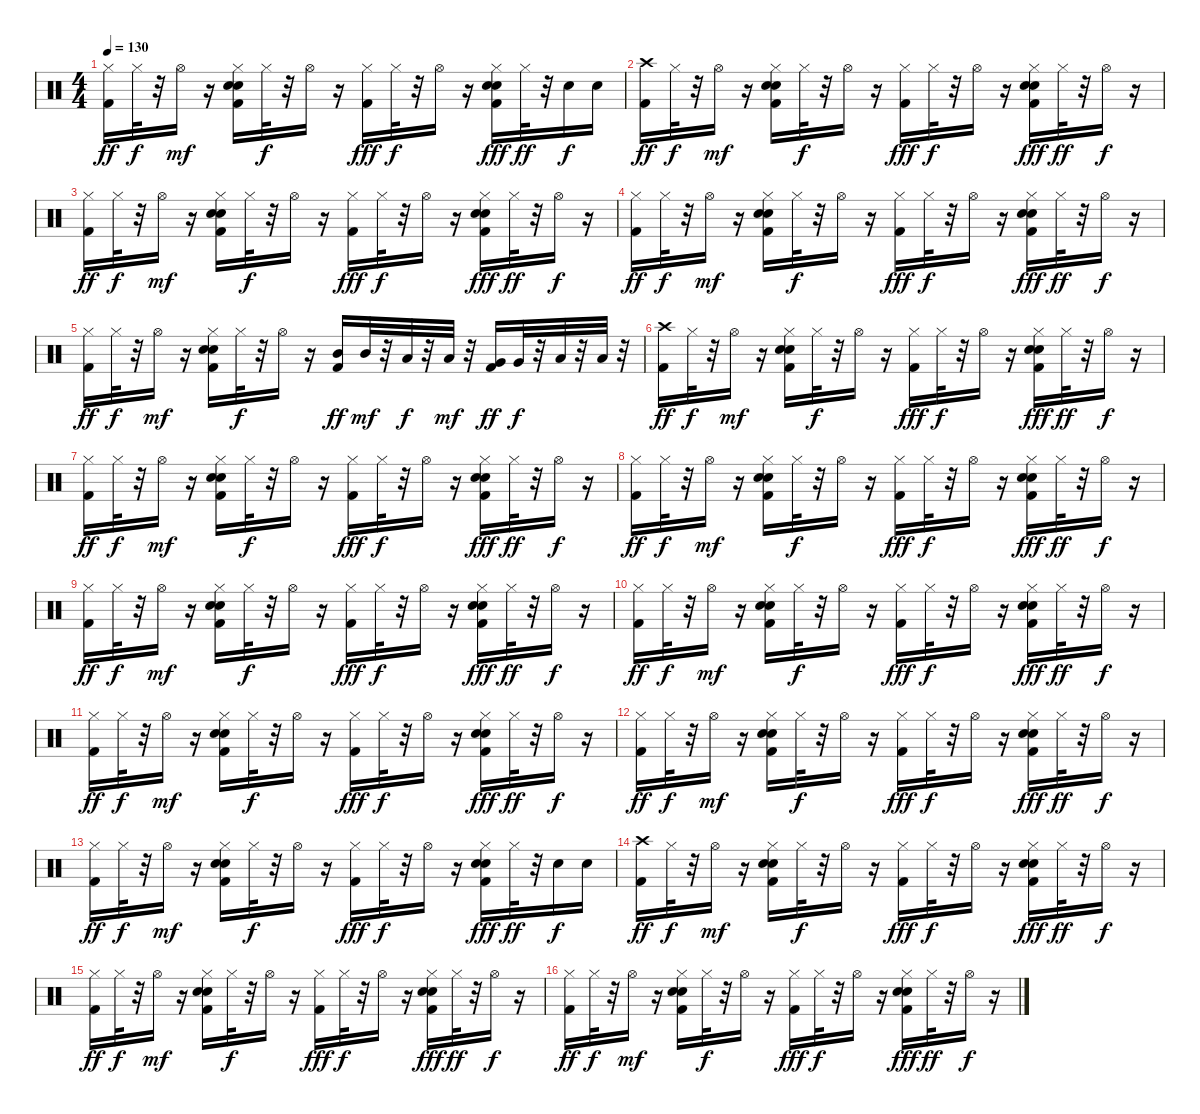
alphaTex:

\track "" {instrument percussion}
\staff {score}
\articulation defaults
\ts (4 4)
\tempo 130
\clef neutral
\ks c
("Kick (hit) 2" "Hi-Hat (closed)").16{dy ff} "Hi-Hat (closed)".32{dy f} r.32 "Hi-Hat (open)".16{dy mf} r.16 ("Kick (hit) 2" "Hand Clap (hit)" "Electric Snare (hit)" "Hi-Hat (closed)").16 "Hi-Hat (closed)".32{dy f} r.32 "Hi-Hat (open)".16 r.16 ("Kick (hit) 2" "Hi-Hat (closed)").16{dy fff} "Hi-Hat (closed)".32{dy f} r.32 "Hi-Hat (open)".16 r.16 ("Kick (hit) 2" "Hand Clap (hit)" "Electric Snare (hit)" "Hi-Hat (closed)").16{dy fff} "Hi-Hat (closed)".32{dy ff} r.32 "Electric Snare (hit)".16{dy f} "Electric Snare (hit)".16 |
("Kick (hit) 2" "Crash high (hit)").16{dy ff} "Hi-Hat (closed)".32{dy f} r.32 "Hi-Hat (open)".16{dy mf} r.16 ("Kick (hit) 2" "Hand Clap (hit)" "Electric Snare (hit)" "Hi-Hat (closed)").16 "Hi-Hat (closed)".32{dy f} r.32 "Hi-Hat (open)".16 r.16 ("Kick (hit) 2" "Hi-Hat (closed)").16{dy fff} "Hi-Hat (closed)".32{dy f} r.32 "Hi-Hat (open)".16 r.16 ("Kick (hit) 2" "Hand Clap (hit)" "Electric Snare (hit)" "Hi-Hat (closed)").16{dy fff} "Hi-Hat (closed)".32{dy ff} r.32 "Hi-Hat (open)".16{dy f} r.16 |
("Kick (hit) 2" "Hi-Hat (closed)").16{dy ff} "Hi-Hat (closed)".32{dy f} r.32 "Hi-Hat (open)".16{dy mf} r.16 ("Kick (hit) 2" "Hand Clap (hit)" "Electric Snare (hit)" "Hi-Hat (closed)").16 "Hi-Hat (closed)".32{dy f} r.32 "Hi-Hat (open)".16 r.16 ("Kick (hit) 2" "Hi-Hat (closed)").16{dy fff} "Hi-Hat (closed)".32{dy f} r.32 "Hi-Hat (open)".16 r.16 ("Kick (hit) 2" "Hand Clap (hit)" "Electric Snare (hit)" "Hi-Hat (closed)").16{dy fff} "Hi-Hat (closed)".32{dy ff} r.32 "Hi-Hat (open)".16{dy f} r.16 |
("Kick (hit) 2" "Hi-Hat (closed)").16{dy ff} "Hi-Hat (closed)".32{dy f} r.32 "Hi-Hat (open)".16{dy mf} r.16 ("Kick (hit) 2" "Hand Clap (hit)" "Electric Snare (hit)" "Hi-Hat (closed)").16 "Hi-Hat (closed)".32{dy f} r.32 "Hi-Hat (open)".16 r.16 ("Kick (hit) 2" "Hi-Hat (closed)").16{dy fff} "Hi-Hat (closed)".32{dy f} r.32 "Hi-Hat (open)".16 r.16 ("Kick (hit) 2" "Hand Clap (hit)" "Electric Snare (hit)" "Hi-Hat (closed)").16{dy fff} "Hi-Hat (closed)".32{dy ff} r.32 "Hi-Hat (open)".16{dy f} r.16 |
("Kick (hit) 2" "Hi-Hat (closed)").16{dy ff} "Hi-Hat (closed)".32{dy f} r.32 "Hi-Hat (open)".16{dy mf} r.16 ("Kick (hit) 2" "Hand Clap (hit)" "Electric Snare (hit)" "Hi-Hat (closed)").16 "Hi-Hat (closed)".32{dy f} r.32 "Hi-Hat (open)".16 r.16 ("Kick (hit) 2" "Mid Tom (hit)").16{dy ff} "Mid Tom (hit)".32{dy mf} r.32 "Low Tom (hit)".32{dy f} r.32 "Low Tom (hit)".32{dy mf} r.32 ("Kick (hit) 2" "Very Low Tom (hit)").16{dy ff} "Very Low Tom (hit)".32{dy f} r.32 "Low Floor Tom (hit)".32 r.32 "Low Floor Tom (hit)".32 r.32 |
("Kick (hit) 2" "Crash high (hit)").16{dy ff} "Hi-Hat (closed)".32{dy f} r.32 "Hi-Hat (open)".16{dy mf} r.16 ("Kick (hit) 2" "Hand Clap (hit)" "Electric Snare (hit)" "Hi-Hat (closed)").16 "Hi-Hat (closed)".32{dy f} r.32 "Hi-Hat (open)".16 r.16 ("Kick (hit) 2" "Hi-Hat (closed)").16{dy fff} "Hi-Hat (closed)".32{dy f} r.32 "Hi-Hat (open)".16 r.16 ("Kick (hit) 2" "Hand Clap (hit)" "Electric Snare (hit)" "Hi-Hat (closed)").16{dy fff} "Hi-Hat (closed)".32{dy ff} r.32 "Hi-Hat (open)".16{dy f} r.16 |
("Kick (hit) 2" "Hi-Hat (closed)").16{dy ff} "Hi-Hat (closed)".32{dy f} r.32 "Hi-Hat (open)".16{dy mf} r.16 ("Kick (hit) 2" "Hand Clap (hit)" "Electric Snare (hit)" "Hi-Hat (closed)").16 "Hi-Hat (closed)".32{dy f} r.32 "Hi-Hat (open)".16 r.16 ("Kick (hit) 2" "Hi-Hat (closed)").16{dy fff} "Hi-Hat (closed)".32{dy f} r.32 "Hi-Hat (open)".16 r.16 ("Kick (hit) 2" "Hand Clap (hit)" "Electric Snare (hit)" "Hi-Hat (closed)").16{dy fff} "Hi-Hat (closed)".32{dy ff} r.32 "Hi-Hat (open)".16{dy f} r.16 |
("Kick (hit) 2" "Hi-Hat (closed)").16{dy ff} "Hi-Hat (closed)".32{dy f} r.32 "Hi-Hat (open)".16{dy mf} r.16 ("Kick (hit) 2" "Hand Clap (hit)" "Electric Snare (hit)" "Hi-Hat (closed)").16 "Hi-Hat (closed)".32{dy f} r.32 "Hi-Hat (open)".16 r.16 ("Kick (hit) 2" "Hi-Hat (closed)").16{dy fff} "Hi-Hat (closed)".32{dy f} r.32 "Hi-Hat (open)".16 r.16 ("Kick (hit) 2" "Hand Clap (hit)" "Electric Snare (hit)" "Hi-Hat (closed)").16{dy fff} "Hi-Hat (closed)".32{dy ff} r.32 "Hi-Hat (open)".16{dy f} r.16 |
("Kick (hit) 2" "Hi-Hat (closed)").16{dy ff} "Hi-Hat (closed)".32{dy f} r.32 "Hi-Hat (open)".16{dy mf} r.16 ("Kick (hit) 2" "Hand Clap (hit)" "Electric Snare (hit)" "Hi-Hat (closed)").16 "Hi-Hat (closed)".32{dy f} r.32 "Hi-Hat (open)".16 r.16 ("Kick (hit) 2" "Hi-Hat (closed)").16{dy fff} "Hi-Hat (closed)".32{dy f} r.32 "Hi-Hat (open)".16 r.16 ("Kick (hit) 2" "Hand Clap (hit)" "Electric Snare (hit)" "Hi-Hat (closed)").16{dy fff} "Hi-Hat (closed)".32{dy ff} r.32 "Hi-Hat (open)".16{dy f} r.16 |
("Kick (hit) 2" "Hi-Hat (closed)").16{dy ff} "Hi-Hat (closed)".32{dy f} r.32 "Hi-Hat (open)".16{dy mf} r.16 ("Kick (hit) 2" "Hand Clap (hit)" "Electric Snare (hit)" "Hi-Hat (closed)").16 "Hi-Hat (closed)".32{dy f} r.32 "Hi-Hat (open)".16 r.16 ("Kick (hit) 2" "Hi-Hat (closed)").16{dy fff} "Hi-Hat (closed)".32{dy f} r.32 "Hi-Hat (open)".16 r.16 ("Kick (hit) 2" "Hand Clap (hit)" "Electric Snare (hit)" "Hi-Hat (closed)").16{dy fff} "Hi-Hat (closed)".32{dy ff} r.32 "Hi-Hat (open)".16{dy f} r.16 |
("Kick (hit) 2" "Hi-Hat (closed)").16{dy ff} "Hi-Hat (closed)".32{dy f} r.32 "Hi-Hat (open)".16{dy mf} r.16 ("Kick (hit) 2" "Hand Clap (hit)" "Electric Snare (hit)" "Hi-Hat (closed)").16 "Hi-Hat (closed)".32{dy f} r.32 "Hi-Hat (open)".16 r.16 ("Kick (hit) 2" "Hi-Hat (closed)").16{dy fff} "Hi-Hat (closed)".32{dy f} r.32 "Hi-Hat (open)".16 r.16 ("Kick (hit) 2" "Hand Clap (hit)" "Electric Snare (hit)" "Hi-Hat (closed)").16{dy fff} "Hi-Hat (closed)".32{dy ff} r.32 "Hi-Hat (open)".16{dy f} r.16 |
("Kick (hit) 2" "Hi-Hat (closed)").16{dy ff} "Hi-Hat (closed)".32{dy f} r.32 "Hi-Hat (open)".16{dy mf} r.16 ("Kick (hit) 2" "Hand Clap (hit)" "Electric Snare (hit)" "Hi-Hat (closed)").16 "Hi-Hat (closed)".32{dy f} r.32 "Hi-Hat (open)".16 r.16 ("Kick (hit) 2" "Hi-Hat (closed)").16{dy fff} "Hi-Hat (closed)".32{dy f} r.32 "Hi-Hat (open)".16 r.16 ("Kick (hit) 2" "Hand Clap (hit)" "Electric Snare (hit)" "Hi-Hat (closed)").16{dy fff} "Hi-Hat (closed)".32{dy ff} r.32 "Hi-Hat (open)".16{dy f} r.16 |
("Kick (hit) 2" "Hi-Hat (closed)").16{dy ff} "Hi-Hat (closed)".32{dy f} r.32 "Hi-Hat (open)".16{dy mf} r.16 ("Kick (hit) 2" "Hand Clap (hit)" "Electric Snare (hit)" "Hi-Hat (closed)").16 "Hi-Hat (closed)".32{dy f} r.32 "Hi-Hat (open)".16 r.16 ("Kick (hit) 2" "Hi-Hat (closed)").16{dy fff} "Hi-Hat (closed)".32{dy f} r.32 "Hi-Hat (open)".16 r.16 ("Kick (hit) 2" "Hand Clap (hit)" "Electric Snare (hit)" "Hi-Hat (closed)").16{dy fff} "Hi-Hat (closed)".32{dy ff} r.32 "Electric Snare (hit)".16{dy f} "Electric Snare (hit)".16 |
("Kick (hit) 2" "Crash high (hit)").16{dy ff} "Hi-Hat (closed)".32{dy f} r.32 "Hi-Hat (open)".16{dy mf} r.16 ("Kick (hit) 2" "Hand Clap (hit)" "Electric Snare (hit)" "Hi-Hat (closed)").16 "Hi-Hat (closed)".32{dy f} r.32 "Hi-Hat (open)".16 r.16 ("Kick (hit) 2" "Hi-Hat (closed)").16{dy fff} "Hi-Hat (closed)".32{dy f} r.32 "Hi-Hat (open)".16 r.16 ("Kick (hit) 2" "Hand Clap (hit)" "Electric Snare (hit)" "Hi-Hat (closed)").16{dy fff} "Hi-Hat (closed)".32{dy ff} r.32 "Hi-Hat (open)".16{dy f} r.16 |
("Kick (hit) 2" "Hi-Hat (closed)").16{dy ff} "Hi-Hat (closed)".32{dy f} r.32 "Hi-Hat (open)".16{dy mf} r.16 ("Kick (hit) 2" "Hand Clap (hit)" "Electric Snare (hit)" "Hi-Hat (closed)").16 "Hi-Hat (closed)".32{dy f} r.32 "Hi-Hat (open)".16 r.16 ("Kick (hit) 2" "Hi-Hat (closed)").16{dy fff} "Hi-Hat (closed)".32{dy f} r.32 "Hi-Hat (open)".16 r.16 ("Kick (hit) 2" "Hand Clap (hit)" "Electric Snare (hit)" "Hi-Hat (closed)").16{dy fff} "Hi-Hat (closed)".32{dy ff} r.32 "Hi-Hat (open)".16{dy f} r.16 |
("Kick (hit) 2" "Hi-Hat (closed)").16{dy ff} "Hi-Hat (closed)".32{dy f} r.32 "Hi-Hat (open)".16{dy mf} r.16 ("Kick (hit) 2" "Hand Clap (hit)" "Electric Snare (hit)" "Hi-Hat (closed)").16 "Hi-Hat (closed)".32{dy f} r.32 "Hi-Hat (open)".16 r.16 ("Kick (hit) 2" "Hi-Hat (closed)").16{dy fff} "Hi-Hat (closed)".32{dy f} r.32 "Hi-Hat (open)".16 r.16 ("Kick (hit) 2" "Hand Clap (hit)" "Electric Snare (hit)" "Hi-Hat (closed)").16{dy fff} "Hi-Hat (closed)".32{dy ff} r.32 "Hi-Hat (open)".16{dy f} r.16
